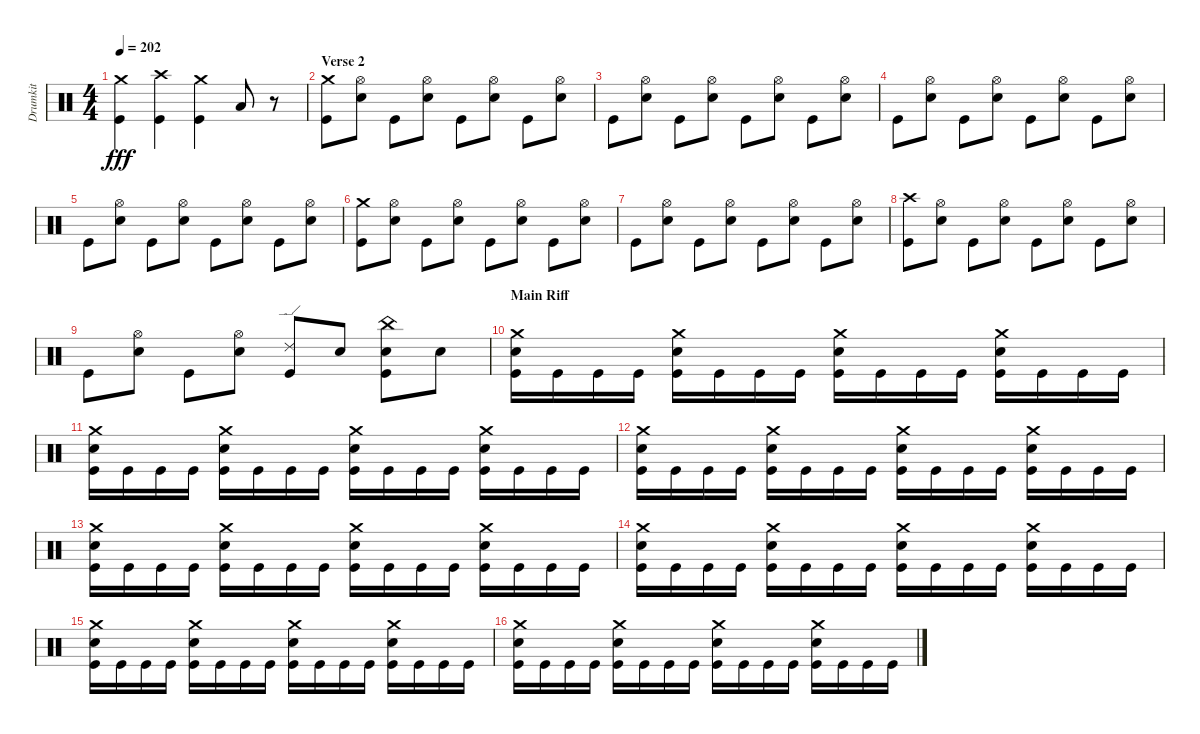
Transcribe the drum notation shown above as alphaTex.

\track ("Drumkit" "Drumkit") {instrument percussion}
\staff {score}
\articulation defaults
\ts (4 4)
\tempo 202
\clef neutral
\ks c
("Crash medium (hit)" "Kick (hit)").4{dy fff} ("Crash high (hit)" "Kick (hit)").4 ("Crash medium (hit)" "Kick (hit)").4 "Low Floor Tom (hit)".8 r.8 |
\section ("" "Verse 2")
("Crash medium (hit)" "Kick (hit)").8 ("Snare (hit) 2" "Hi-Hat (open)").8 "Kick (hit)".8 ("Snare (hit) 2" "Hi-Hat (open)").8 "Kick (hit)".8 ("Snare (hit) 2" "Hi-Hat (open)").8 "Kick (hit)".8 ("Snare (hit) 2" "Hi-Hat (open)").8 |
"Kick (hit)".8 ("Snare (hit) 2" "Hi-Hat (open)").8 "Kick (hit)".8 ("Snare (hit) 2" "Hi-Hat (open)").8 "Kick (hit)".8 ("Snare (hit) 2" "Hi-Hat (open)").8 "Kick (hit)".8 ("Snare (hit) 2" "Hi-Hat (open)").8 |
"Kick (hit)".8 ("Snare (hit) 2" "Hi-Hat (open)").8 "Kick (hit)".8 ("Snare (hit) 2" "Hi-Hat (open)").8 "Kick (hit)".8 ("Snare (hit) 2" "Hi-Hat (open)").8 "Kick (hit)".8 ("Snare (hit) 2" "Hi-Hat (open)").8 |
"Kick (hit)".8 ("Snare (hit) 2" "Hi-Hat (open)").8 "Kick (hit)".8 ("Snare (hit) 2" "Hi-Hat (open)").8 "Kick (hit)".8 ("Snare (hit) 2" "Hi-Hat (open)").8 "Kick (hit)".8 ("Snare (hit) 2" "Hi-Hat (open)").8 |
("Crash medium (hit)" "Kick (hit)").8 ("Snare (hit) 2" "Hi-Hat (open)").8 "Kick (hit)".8 ("Snare (hit) 2" "Hi-Hat (open)").8 "Kick (hit)".8 ("Snare (hit) 2" "Hi-Hat (open)").8 "Kick (hit)".8 ("Snare (hit) 2" "Hi-Hat (open)").8 |
"Kick (hit)".8 ("Snare (hit) 2" "Hi-Hat (open)").8 "Kick (hit)".8 ("Snare (hit) 2" "Hi-Hat (open)").8 "Kick (hit)".8 ("Snare (hit) 2" "Hi-Hat (open)").8 "Kick (hit)".8 ("Snare (hit) 2" "Hi-Hat (open)").8 |
("Crash high (hit)" "Kick (hit)").8 ("Snare (hit) 2" "Hi-Hat (open)").8 "Kick (hit)".8 ("Snare (hit) 2" "Hi-Hat (open)").8 "Kick (hit)".8 ("Snare (hit) 2" "Hi-Hat (open)").8 "Kick (hit)".8 ("Snare (hit) 2" "Hi-Hat (open)").8 |
"Kick (hit)".8 ("Snare (hit) 2" "Hi-Hat (open)").8 "Kick (hit)".8 ("Snare (hit) 2" "Hi-Hat (open)").8 ("Ride (edge) 2" "Kick (hit)").8 "Snare (hit) 2".8 ("China (hit)" "Snare (hit) 2" "Kick (hit)").8 "Snare (hit) 2".8 |
\section ("" "Main Riff")
("Crash medium (hit)" "Snare (hit) 2" "Kick (hit)").16 "Kick (hit)".16 "Kick (hit)".16 "Kick (hit)".16 ("Crash medium (hit)" "Snare (hit) 2" "Kick (hit)").16 "Kick (hit)".16 "Kick (hit)".16 "Kick (hit)".16 ("Crash medium (hit)" "Snare (hit) 2" "Kick (hit)").16 "Kick (hit)".16 "Kick (hit)".16 "Kick (hit)".16 ("Crash medium (hit)" "Snare (hit) 2" "Kick (hit)").16 "Kick (hit)".16 "Kick (hit)".16 "Kick (hit)".16 |
("Crash medium (hit)" "Snare (hit) 2" "Kick (hit)").16 "Kick (hit)".16 "Kick (hit)".16 "Kick (hit)".16 ("Crash medium (hit)" "Snare (hit) 2" "Kick (hit)").16 "Kick (hit)".16 "Kick (hit)".16 "Kick (hit)".16 ("Crash medium (hit)" "Snare (hit) 2" "Kick (hit)").16 "Kick (hit)".16 "Kick (hit)".16 "Kick (hit)".16 ("Crash medium (hit)" "Snare (hit) 2" "Kick (hit)").16 "Kick (hit)".16 "Kick (hit)".16 "Kick (hit)".16 |
("Crash medium (hit)" "Snare (hit) 2" "Kick (hit)").16 "Kick (hit)".16 "Kick (hit)".16 "Kick (hit)".16 ("Crash medium (hit)" "Snare (hit) 2" "Kick (hit)").16 "Kick (hit)".16 "Kick (hit)".16 "Kick (hit)".16 ("Crash medium (hit)" "Snare (hit) 2" "Kick (hit)").16 "Kick (hit)".16 "Kick (hit)".16 "Kick (hit)".16 ("Crash medium (hit)" "Snare (hit) 2" "Kick (hit)").16 "Kick (hit)".16 "Kick (hit)".16 "Kick (hit)".16 |
("Crash medium (hit)" "Snare (hit) 2" "Kick (hit)").16 "Kick (hit)".16 "Kick (hit)".16 "Kick (hit)".16 ("Crash medium (hit)" "Snare (hit) 2" "Kick (hit)").16 "Kick (hit)".16 "Kick (hit)".16 "Kick (hit)".16 ("Crash medium (hit)" "Snare (hit) 2" "Kick (hit)").16 "Kick (hit)".16 "Kick (hit)".16 "Kick (hit)".16 ("Crash medium (hit)" "Snare (hit) 2" "Kick (hit)").16 "Kick (hit)".16 "Kick (hit)".16 "Kick (hit)".16 |
("Crash medium (hit)" "Snare (hit) 2" "Kick (hit)").16 "Kick (hit)".16 "Kick (hit)".16 "Kick (hit)".16 ("Crash medium (hit)" "Snare (hit) 2" "Kick (hit)").16 "Kick (hit)".16 "Kick (hit)".16 "Kick (hit)".16 ("Crash medium (hit)" "Snare (hit) 2" "Kick (hit)").16 "Kick (hit)".16 "Kick (hit)".16 "Kick (hit)".16 ("Crash medium (hit)" "Snare (hit) 2" "Kick (hit)").16 "Kick (hit)".16 "Kick (hit)".16 "Kick (hit)".16 |
("Crash medium (hit)" "Snare (hit) 2" "Kick (hit)").16 "Kick (hit)".16 "Kick (hit)".16 "Kick (hit)".16 ("Crash medium (hit)" "Snare (hit) 2" "Kick (hit)").16 "Kick (hit)".16 "Kick (hit)".16 "Kick (hit)".16 ("Crash medium (hit)" "Snare (hit) 2" "Kick (hit)").16 "Kick (hit)".16 "Kick (hit)".16 "Kick (hit)".16 ("Crash medium (hit)" "Snare (hit) 2" "Kick (hit)").16 "Kick (hit)".16 "Kick (hit)".16 "Kick (hit)".16 |
("Crash medium (hit)" "Snare (hit) 2" "Kick (hit)").16 "Kick (hit)".16 "Kick (hit)".16 "Kick (hit)".16 ("Crash medium (hit)" "Snare (hit) 2" "Kick (hit)").16 "Kick (hit)".16 "Kick (hit)".16 "Kick (hit)".16 ("Crash medium (hit)" "Snare (hit) 2" "Kick (hit)").16 "Kick (hit)".16 "Kick (hit)".16 "Kick (hit)".16 ("Crash medium (hit)" "Snare (hit) 2" "Kick (hit)").16 "Kick (hit)".16 "Kick (hit)".16 "Kick (hit)".16
